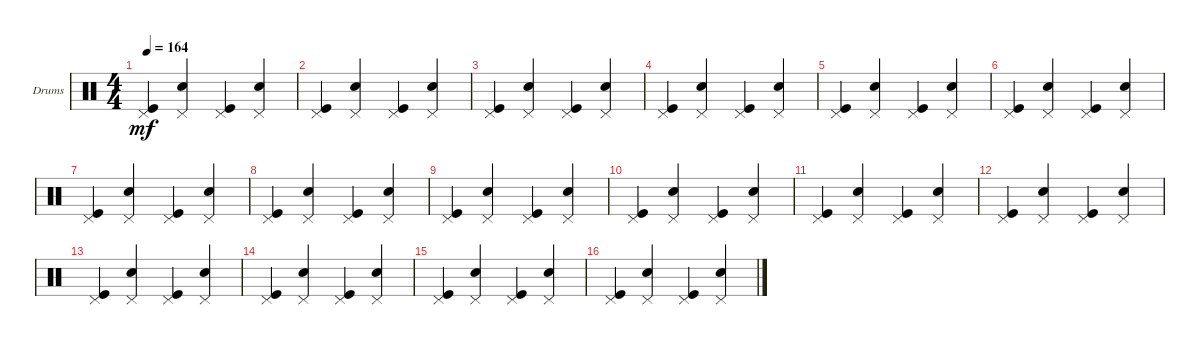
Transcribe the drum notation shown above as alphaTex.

\defaultSystemsLayout 4
\bracketExtendMode groupsimilarinstruments
\firstSystemTrackNameOrientation horizontal
\otherSystemsTrackNameOrientation horizontal
\track ("Drumkit" "Drums") {instrument percussion}
\staff {score}
\articulation defaults
\ts (4 4)
\tempo 164
\clef neutral
\ks c
("Kick (hit)" "Pedal Hi-Hat (hit)").4{dy mf} ("Snare (hit) 2" "Pedal Hi-Hat (hit)").4 ("Kick (hit)" "Pedal Hi-Hat (hit)").4 ("Snare (hit) 2" "Pedal Hi-Hat (hit)").4 |
("Kick (hit)" "Pedal Hi-Hat (hit)").4 ("Snare (hit) 2" "Pedal Hi-Hat (hit)").4 ("Kick (hit)" "Pedal Hi-Hat (hit)").4 ("Snare (hit) 2" "Pedal Hi-Hat (hit)").4 |
("Kick (hit)" "Pedal Hi-Hat (hit)").4 ("Snare (hit) 2" "Pedal Hi-Hat (hit)").4 ("Kick (hit)" "Pedal Hi-Hat (hit)").4 ("Snare (hit) 2" "Pedal Hi-Hat (hit)").4 |
("Kick (hit)" "Pedal Hi-Hat (hit)").4 ("Snare (hit) 2" "Pedal Hi-Hat (hit)").4 ("Kick (hit)" "Pedal Hi-Hat (hit)").4 ("Snare (hit) 2" "Pedal Hi-Hat (hit)").4 |
("Kick (hit)" "Pedal Hi-Hat (hit)").4 ("Snare (hit) 2" "Pedal Hi-Hat (hit)").4 ("Kick (hit)" "Pedal Hi-Hat (hit)").4 ("Snare (hit) 2" "Pedal Hi-Hat (hit)").4 |
("Kick (hit)" "Pedal Hi-Hat (hit)").4 ("Snare (hit) 2" "Pedal Hi-Hat (hit)").4 ("Kick (hit)" "Pedal Hi-Hat (hit)").4 ("Snare (hit) 2" "Pedal Hi-Hat (hit)").4 |
("Kick (hit)" "Pedal Hi-Hat (hit)").4 ("Snare (hit) 2" "Pedal Hi-Hat (hit)").4 ("Kick (hit)" "Pedal Hi-Hat (hit)").4 ("Snare (hit) 2" "Pedal Hi-Hat (hit)").4 |
("Kick (hit)" "Pedal Hi-Hat (hit)").4 ("Snare (hit) 2" "Pedal Hi-Hat (hit)").4 ("Kick (hit)" "Pedal Hi-Hat (hit)").4 ("Snare (hit) 2" "Pedal Hi-Hat (hit)").4 |
("Kick (hit)" "Pedal Hi-Hat (hit)").4 ("Snare (hit) 2" "Pedal Hi-Hat (hit)").4 ("Kick (hit)" "Pedal Hi-Hat (hit)").4 ("Snare (hit) 2" "Pedal Hi-Hat (hit)").4 |
("Kick (hit)" "Pedal Hi-Hat (hit)").4 ("Snare (hit) 2" "Pedal Hi-Hat (hit)").4 ("Kick (hit)" "Pedal Hi-Hat (hit)").4 ("Snare (hit) 2" "Pedal Hi-Hat (hit)").4 |
("Kick (hit)" "Pedal Hi-Hat (hit)").4 ("Snare (hit) 2" "Pedal Hi-Hat (hit)").4 ("Kick (hit)" "Pedal Hi-Hat (hit)").4 ("Snare (hit) 2" "Pedal Hi-Hat (hit)").4 |
("Kick (hit)" "Pedal Hi-Hat (hit)").4 ("Snare (hit) 2" "Pedal Hi-Hat (hit)").4 ("Kick (hit)" "Pedal Hi-Hat (hit)").4 ("Snare (hit) 2" "Pedal Hi-Hat (hit)").4 |
("Kick (hit)" "Pedal Hi-Hat (hit)").4 ("Snare (hit) 2" "Pedal Hi-Hat (hit)").4 ("Kick (hit)" "Pedal Hi-Hat (hit)").4 ("Snare (hit) 2" "Pedal Hi-Hat (hit)").4 |
("Kick (hit)" "Pedal Hi-Hat (hit)").4 ("Snare (hit) 2" "Pedal Hi-Hat (hit)").4 ("Kick (hit)" "Pedal Hi-Hat (hit)").4 ("Snare (hit) 2" "Pedal Hi-Hat (hit)").4 |
("Kick (hit)" "Pedal Hi-Hat (hit)").4 ("Snare (hit) 2" "Pedal Hi-Hat (hit)").4 ("Kick (hit)" "Pedal Hi-Hat (hit)").4 ("Snare (hit) 2" "Pedal Hi-Hat (hit)").4 |
("Kick (hit)" "Pedal Hi-Hat (hit)").4 ("Snare (hit) 2" "Pedal Hi-Hat (hit)").4 ("Kick (hit)" "Pedal Hi-Hat (hit)").4 ("Snare (hit) 2" "Pedal Hi-Hat (hit)").4
